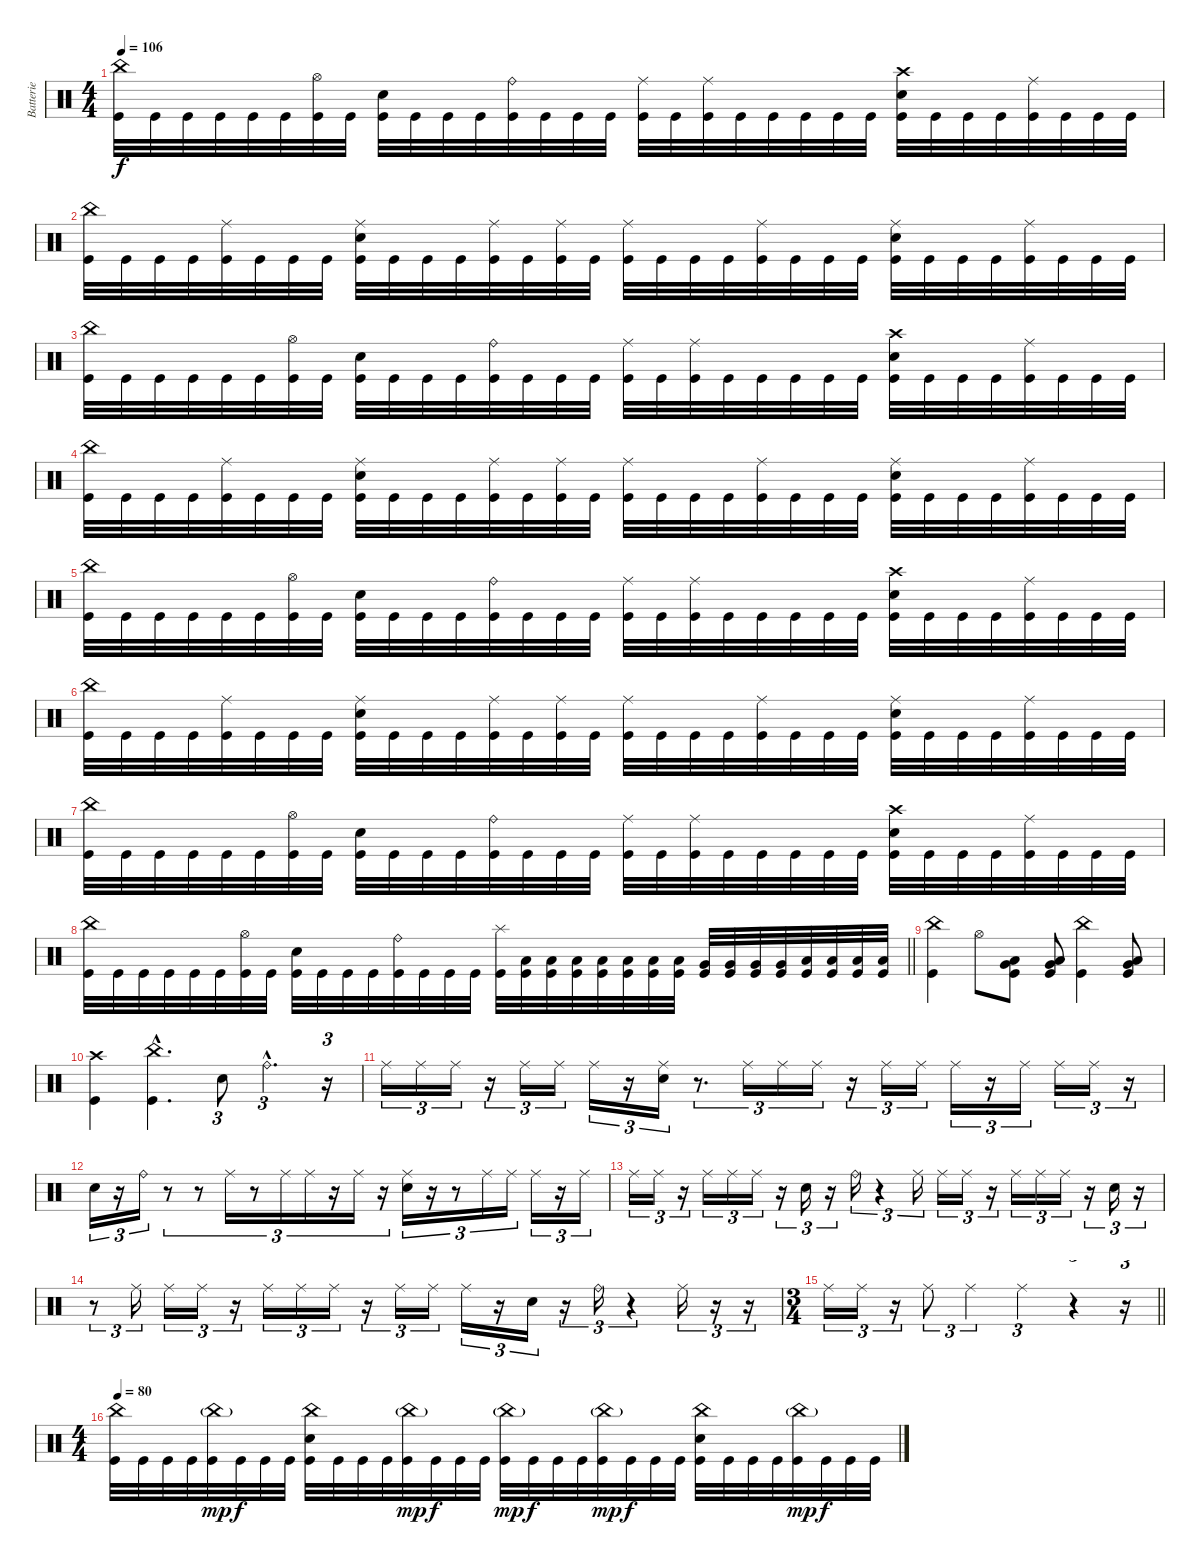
\track ("Batterie" "Batterie") {instrument percussion}
\staff {score}
\articulation defaults
\ts (4 4)
\tempo 106
\clef neutral
\ks c
("China (hit)" "Kick (hit)").32{dy f} "Kick (hit)".32 "Kick (hit)".32 "Kick (hit)".32 "Kick (hit)".32 "Kick (hit)".32 ("Hi-Hat (open)" "Kick (hit)").32 "Kick (hit)".32 ("Electric Snare (hit)" "Kick (hit)").32 "Kick (hit)".32 "Kick (hit)".32 "Kick (hit)".32 ("Ride (bell)" "Kick (hit)").32 "Kick (hit)".32 "Kick (hit)".32 "Kick (hit)".32 ("Ride (middle)" "Kick (hit)").32 "Kick (hit)".32 ("Ride (middle)" "Kick (hit)").32 "Kick (hit)".32 "Kick (hit)".32 "Kick (hit)".32 "Kick (hit)".32 "Kick (hit)".32 ("Crash high (hit)" "Electric Snare (hit)" "Kick (hit)").32 "Kick (hit)".32 "Kick (hit)".32 "Kick (hit)".32 ("Ride (middle)" "Kick (hit)").32 "Kick (hit)".32 "Kick (hit)".32 "Kick (hit)".32 |
("China (hit)" "Kick (hit)").32 "Kick (hit)".32 "Kick (hit)".32 "Kick (hit)".32 ("Ride (middle)" "Kick (hit)").32 "Kick (hit)".32 "Kick (hit)".32 "Kick (hit)".32 ("Ride (middle)" "Electric Snare (hit)" "Kick (hit)").32 "Kick (hit)".32 "Kick (hit)".32 "Kick (hit)".32 ("Ride (middle)" "Kick (hit)").32 "Kick (hit)".32 ("Ride (middle)" "Kick (hit)").32 "Kick (hit)".32 ("Ride (middle)" "Kick (hit)").32 "Kick (hit)".32 "Kick (hit)".32 "Kick (hit)".32 ("Ride (middle)" "Kick (hit)").32 "Kick (hit)".32 "Kick (hit)".32 "Kick (hit)".32 ("Ride (middle)" "Electric Snare (hit)" "Kick (hit)").32 "Kick (hit)".32 "Kick (hit)".32 "Kick (hit)".32 ("Ride (middle)" "Kick (hit)").32 "Kick (hit)".32 "Kick (hit)".32 "Kick (hit)".32 |
("China (hit)" "Kick (hit)").32 "Kick (hit)".32 "Kick (hit)".32 "Kick (hit)".32 "Kick (hit)".32 "Kick (hit)".32 ("Hi-Hat (open)" "Kick (hit)").32 "Kick (hit)".32 ("Electric Snare (hit)" "Kick (hit)").32 "Kick (hit)".32 "Kick (hit)".32 "Kick (hit)".32 ("Ride (bell)" "Kick (hit)").32 "Kick (hit)".32 "Kick (hit)".32 "Kick (hit)".32 ("Ride (middle)" "Kick (hit)").32 "Kick (hit)".32 ("Ride (middle)" "Kick (hit)").32 "Kick (hit)".32 "Kick (hit)".32 "Kick (hit)".32 "Kick (hit)".32 "Kick (hit)".32 ("Crash high (hit)" "Electric Snare (hit)" "Kick (hit)").32 "Kick (hit)".32 "Kick (hit)".32 "Kick (hit)".32 ("Ride (middle)" "Kick (hit)").32 "Kick (hit)".32 "Kick (hit)".32 "Kick (hit)".32 |
("China (hit)" "Kick (hit)").32 "Kick (hit)".32 "Kick (hit)".32 "Kick (hit)".32 ("Ride (middle)" "Kick (hit)").32 "Kick (hit)".32 "Kick (hit)".32 "Kick (hit)".32 ("Ride (middle)" "Electric Snare (hit)" "Kick (hit)").32 "Kick (hit)".32 "Kick (hit)".32 "Kick (hit)".32 ("Ride (middle)" "Kick (hit)").32 "Kick (hit)".32 ("Ride (middle)" "Kick (hit)").32 "Kick (hit)".32 ("Ride (middle)" "Kick (hit)").32 "Kick (hit)".32 "Kick (hit)".32 "Kick (hit)".32 ("Ride (middle)" "Kick (hit)").32 "Kick (hit)".32 "Kick (hit)".32 "Kick (hit)".32 ("Ride (middle)" "Electric Snare (hit)" "Kick (hit)").32 "Kick (hit)".32 "Kick (hit)".32 "Kick (hit)".32 ("Ride (middle)" "Kick (hit)").32 "Kick (hit)".32 "Kick (hit)".32 "Kick (hit)".32 |
("China (hit)" "Kick (hit)").32 "Kick (hit)".32 "Kick (hit)".32 "Kick (hit)".32 "Kick (hit)".32 "Kick (hit)".32 ("Hi-Hat (open)" "Kick (hit)").32 "Kick (hit)".32 ("Electric Snare (hit)" "Kick (hit)").32 "Kick (hit)".32 "Kick (hit)".32 "Kick (hit)".32 ("Ride (bell)" "Kick (hit)").32 "Kick (hit)".32 "Kick (hit)".32 "Kick (hit)".32 ("Ride (middle)" "Kick (hit)").32 "Kick (hit)".32 ("Ride (middle)" "Kick (hit)").32 "Kick (hit)".32 "Kick (hit)".32 "Kick (hit)".32 "Kick (hit)".32 "Kick (hit)".32 ("Crash high (hit)" "Electric Snare (hit)" "Kick (hit)").32 "Kick (hit)".32 "Kick (hit)".32 "Kick (hit)".32 ("Ride (middle)" "Kick (hit)").32 "Kick (hit)".32 "Kick (hit)".32 "Kick (hit)".32 |
("China (hit)" "Kick (hit)").32 "Kick (hit)".32 "Kick (hit)".32 "Kick (hit)".32 ("Ride (middle)" "Kick (hit)").32 "Kick (hit)".32 "Kick (hit)".32 "Kick (hit)".32 ("Ride (middle)" "Electric Snare (hit)" "Kick (hit)").32 "Kick (hit)".32 "Kick (hit)".32 "Kick (hit)".32 ("Ride (middle)" "Kick (hit)").32 "Kick (hit)".32 ("Ride (middle)" "Kick (hit)").32 "Kick (hit)".32 ("Ride (middle)" "Kick (hit)").32 "Kick (hit)".32 "Kick (hit)".32 "Kick (hit)".32 ("Ride (middle)" "Kick (hit)").32 "Kick (hit)".32 "Kick (hit)".32 "Kick (hit)".32 ("Ride (middle)" "Electric Snare (hit)" "Kick (hit)").32 "Kick (hit)".32 "Kick (hit)".32 "Kick (hit)".32 ("Ride (middle)" "Kick (hit)").32 "Kick (hit)".32 "Kick (hit)".32 "Kick (hit)".32 |
("China (hit)" "Kick (hit)").32 "Kick (hit)".32 "Kick (hit)".32 "Kick (hit)".32 "Kick (hit)".32 "Kick (hit)".32 ("Hi-Hat (open)" "Kick (hit)").32 "Kick (hit)".32 ("Electric Snare (hit)" "Kick (hit)").32 "Kick (hit)".32 "Kick (hit)".32 "Kick (hit)".32 ("Ride (bell)" "Kick (hit)").32 "Kick (hit)".32 "Kick (hit)".32 "Kick (hit)".32 ("Ride (middle)" "Kick (hit)").32 "Kick (hit)".32 ("Ride (middle)" "Kick (hit)").32 "Kick (hit)".32 "Kick (hit)".32 "Kick (hit)".32 "Kick (hit)".32 "Kick (hit)".32 ("Crash high (hit)" "Electric Snare (hit)" "Kick (hit)").32 "Kick (hit)".32 "Kick (hit)".32 "Kick (hit)".32 ("Ride (middle)" "Kick (hit)").32 "Kick (hit)".32 "Kick (hit)".32 "Kick (hit)".32 |
\barLineRight lightlight
("China (hit)" "Kick (hit)").32 "Kick (hit)".32 "Kick (hit)".32 "Kick (hit)".32 "Kick (hit)".32 "Kick (hit)".32 ("Hi-Hat (open)" "Kick (hit)").32 "Kick (hit)".32 ("Electric Snare (hit)" "Kick (hit)").32 "Kick (hit)".32 "Kick (hit)".32 "Kick (hit)".32 ("Ride (bell)" "Kick (hit)").32 "Kick (hit)".32 "Kick (hit)".32 "Kick (hit)".32 ("Splash (hit)" "Kick (hit)").32 ("Low Tom (hit)" "Kick (hit)").32 ("Low Tom (hit)" "Kick (hit)").32 ("Low Tom (hit)" "Kick (hit)").32 ("Low Tom (hit)" "Kick (hit)").32 ("Low Tom (hit)" "Kick (hit)").32 ("Low Tom (hit)" "Kick (hit)").32 ("Low Tom (hit)" "Kick (hit)").32 ("Very Low Tom (hit)" "Kick (hit)").32 ("Very Low Tom (hit)" "Kick (hit)").32 ("Very Low Tom (hit)" "Kick (hit)").32 ("Very Low Tom (hit)" "Kick (hit)").32 ("Low Floor Tom (hit)" "Kick (hit)").32 ("Low Floor Tom (hit)" "Kick (hit)").32 ("Low Floor Tom (hit)" "Kick (hit)").32 ("Low Floor Tom (hit)" "Kick (hit)").32 |
("China (hit)" "Kick (hit)").4 "Hi-Hat (open)".8 ("Very Low Tom (hit)" "Low Floor Tom (hit)" "Kick (hit)").8 ("Very Low Tom (hit)" "Low Floor Tom (hit)" "Kick (hit)").8 ("China (hit)" "Kick (hit)").4 ("Very Low Tom (hit)" "Low Floor Tom (hit)" "Kick (hit)").8 |
("Crash high (hit)" "Kick (hit)").4 ("China (hit)"{hac} "Kick (hit)"{hac}).4{d} "Electric Snare (hit)".8{tu (3 2)} "Ride (bell)"{hac}.4{d tu (3 2)} r.16{tu (3 2)} |
"Ride (middle)".16{tu (3 2)} "Ride (middle)".16{tu (3 2)} "Ride (middle)".16{tu (3 2)} r.16{tu (3 2)} "Ride (middle)".16{tu (3 2)} "Ride (middle)".16{tu (3 2)} "Ride (middle)".16{tu (3 2)} r.16{tu (3 2)} ("Ride (middle)" "Electric Snare (hit)").16{tu (3 2)} r.8{d tu (3 2)} "Ride (middle)".16{tu (3 2)} "Ride (middle)".16{tu (3 2)} "Ride (middle)".16{tu (3 2)} r.16{tu (3 2)} "Ride (middle)".16{tu (3 2)} "Ride (middle)".16{tu (3 2)} "Ride (middle)".16{tu (3 2)} r.16{tu (3 2)} "Ride (middle)".16{tu (3 2)} "Ride (middle)".16{tu (3 2)} "Ride (middle)".16{tu (3 2)} r.16{tu (3 2)} |
"Electric Snare (hit)".16{tu (3 2)} r.16{tu (3 2)} "Ride (bell)".16{tu (3 2)} r.8{tu (3 2)} r.8{tu (3 2)} "Ride (middle)".16{tu (3 2)} r.8{tu (3 2)} "Ride (middle)".16{tu (3 2)} "Ride (middle)".16{tu (3 2)} r.16{tu (3 2)} "Ride (middle)".16{tu (3 2)} r.16{tu (3 2)} ("Ride (middle)" "Electric Snare (hit)").16{tu (3 2)} r.16{tu (3 2)} r.8{tu (3 2)} "Ride (middle)".16{tu (3 2)} "Ride (middle)".16{tu (3 2)} "Ride (middle)".16{tu (3 2)} r.16{tu (3 2)} "Ride (middle)".16{tu (3 2)} |
"Ride (middle)".16{tu (3 2)} "Ride (middle)".16{tu (3 2)} r.16{tu (3 2)} "Ride (middle)".16{tu (3 2)} "Ride (middle)".16{tu (3 2)} "Ride (middle)".16{tu (3 2)} r.16{tu (3 2)} "Electric Snare (hit)".16{tu (3 2)} r.16{tu (3 2)} "Ride (bell)".16{tu (3 2)} r.4{tu (3 2)} "Ride (middle)".16{tu (3 2)} "Ride (middle)".16{tu (3 2)} "Ride (middle)".16{tu (3 2)} r.16{tu (3 2)} "Ride (middle)".16{tu (3 2)} "Ride (middle)".16{tu (3 2)} "Ride (middle)".16{tu (3 2)} r.16{tu (3 2)} "Electric Snare (hit)".16{tu (3 2)} r.16{tu (3 2)} |
r.8{tu (3 2)} "Ride (middle)".16{tu (3 2)} "Ride (middle)".16{tu (3 2)} "Ride (middle)".16{tu (3 2)} r.16{tu (3 2)} "Ride (middle)".16{tu (3 2)} "Ride (middle)".16{tu (3 2)} "Ride (middle)".16{tu (3 2)} r.16{tu (3 2)} "Ride (middle)".16{tu (3 2)} "Ride (middle)".16{tu (3 2)} "Ride (middle)".16{tu (3 2)} r.16{tu (3 2)} "Electric Snare (hit)".16{tu (3 2)} r.16{tu (3 2)} "Ride (bell)".16{tu (3 2)} r.4{tu (3 2)} "Ride (middle)".16{tu (3 2)} r.16{tu (3 2)} r.16{tu (3 2)} |
\ts (3 4)
\barLineRight lightlight "Ride (middle)".16{tu (3 2)} "Ride (middle)".16{tu (3 2)}
r.16{tu (3 2)} "Ride (middle)".8{tu (3 2)} "Ride (middle)".4{tu (3 2)} "Ride (middle)".4{tu (3 2)} r.4{tu (3 2)} r.16{tu (3 2)} |
\ts (4 4)
\tempo 80
("China (hit)" "Kick (hit)").32 "Kick (hit)".32 "Kick (hit)".32 "Kick (hit)".32 ("China (hit)"{g} "Kick (hit)").32{dy mp} "Kick (hit)".32{dy f} "Kick (hit)".32 "Kick (hit)".32 ("China (hit)" "Electric Snare (hit)" "Kick (hit)").32 "Kick (hit)".32 "Kick (hit)".32 "Kick (hit)".32 ("China (hit)"{g} "Kick (hit)").32{dy mp} "Kick (hit)".32{dy f} "Kick (hit)".32 "Kick (hit)".32 ("China (hit)"{g} "Kick (hit)").32{dy mp} "Kick (hit)".32{dy f} "Kick (hit)".32 "Kick (hit)".32 ("China (hit)"{g} "Kick (hit)").32{dy mp} "Kick (hit)".32{dy f} "Kick (hit)".32 "Kick (hit)".32 ("China (hit)" "Electric Snare (hit)" "Kick (hit)").32 "Kick (hit)".32 "Kick (hit)".32 "Kick (hit)".32 ("China (hit)"{g} "Kick (hit)").32{dy mp} "Kick (hit)".32{dy f} "Kick (hit)".32 "Kick (hit)".32
